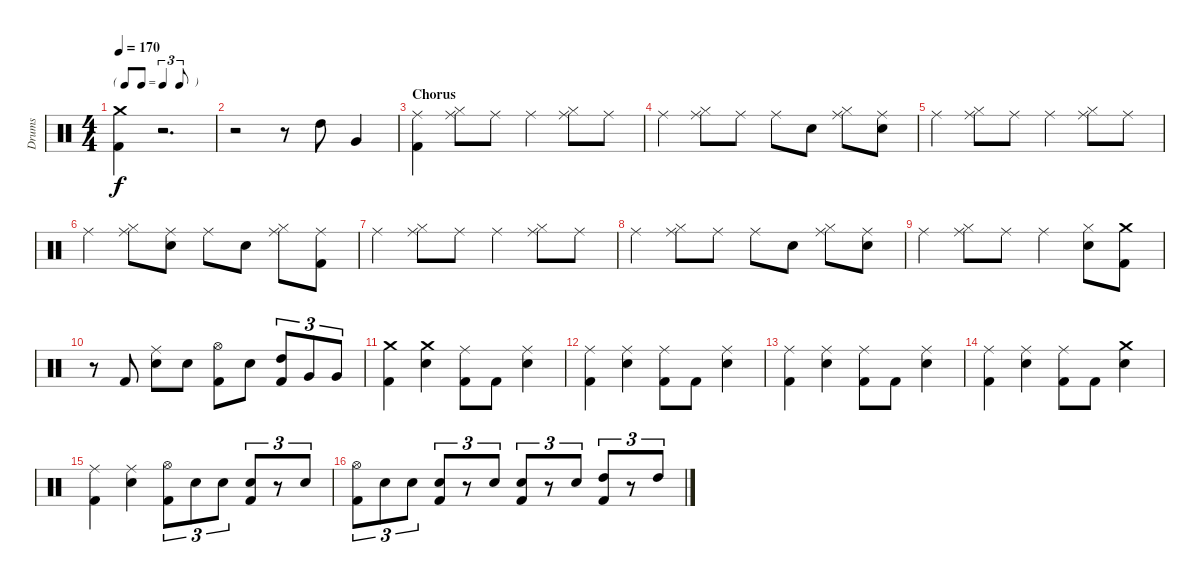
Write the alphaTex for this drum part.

\track ("Drums" "Drums") {instrument percussion}
\staff {score}
\articulation defaults
\ts (4 4)
\tf triplet8th
\tempo 170
\clef neutral
\ks c
("Crash medium (hit)" "Kick (hit) 2").4{dy f} r.2{d} |
r.2 r.8 "High Tom (hit)".8 "Very Low Tom (hit)".4 |
\section ("" "Chorus")
("Ride (middle)" "Kick (hit) 2").4 ("Ride (middle)" "Hi-Hat (closed)").8 "Ride (middle)".8 "Ride (middle)".4 ("Ride (middle)" "Hi-Hat (closed)").8 "Ride (middle)".8 |
"Ride (middle)".4 ("Ride (middle)" "Hi-Hat (closed)").8 "Ride (middle)".8 "Ride (middle)".8 "Snare (hit) 2".8 ("Ride (middle)" "Hi-Hat (closed)").8 ("Ride (middle)" "Snare (hit) 2").8 |
"Ride (middle)".4 ("Ride (middle)" "Hi-Hat (closed)").8 "Ride (middle)".8 "Ride (middle)".4 ("Ride (middle)" "Hi-Hat (closed)").8 "Ride (middle)".8 |
"Ride (middle)".4 ("Ride (middle)" "Hi-Hat (closed)").8 ("Ride (middle)" "Snare (hit) 2").8 "Ride (middle)".8 "Snare (hit) 2".8 ("Ride (middle)" "Hi-Hat (closed)").8 ("Ride (middle)" "Kick (hit) 2").8 |
"Ride (middle)".4 ("Ride (middle)" "Hi-Hat (closed)").8 "Ride (middle)".8 "Ride (middle)".4 ("Ride (middle)" "Hi-Hat (closed)").8 "Ride (middle)".8 |
"Ride (middle)".4 ("Ride (middle)" "Hi-Hat (closed)").8 "Ride (middle)".8 "Ride (middle)".8 "Snare (hit) 2".8 ("Ride (middle)" "Hi-Hat (closed)").8 ("Ride (middle)" "Snare (hit) 2").8 |
"Ride (middle)".4 ("Ride (middle)" "Hi-Hat (closed)").8 "Ride (middle)".8 "Ride (middle)".4 ("Hi-Hat (closed)" "Snare (hit) 2").8 ("Crash medium (hit)" "Kick (hit) 2").8 |
r.8 "Kick (hit) 2".8 ("Ride (middle)" "Snare (hit) 2").8 "Snare (hit) 2".8 ("Hi-Hat (open)" "Kick (hit) 2").8 "Snare (hit) 2".8 ("High Tom (hit)" "Kick (hit) 2").8{tu (3 2)} "Very Low Tom (hit)".8{tu (3 2)} "Very Low Tom (hit)".8{tu (3 2)} |
("Crash medium (hit)" "Kick (hit) 2").4 ("Crash medium (hit)" "Snare (hit) 2").4 ("Ride (middle)" "Kick (hit) 2").8 "Kick (hit) 2".8 ("Ride (middle)" "Snare (hit) 2").4 |
("Ride (middle)" "Kick (hit) 2").4 ("Ride (middle)" "Snare (hit) 2").4 ("Ride (middle)" "Kick (hit) 2").8 "Kick (hit) 2".8 ("Ride (middle)" "Snare (hit) 2").4 |
("Ride (middle)" "Kick (hit) 2").4 ("Ride (middle)" "Snare (hit) 2").4 ("Ride (middle)" "Kick (hit) 2").8 "Kick (hit) 2".8 ("Ride (middle)" "Snare (hit) 2").4 |
("Ride (middle)" "Kick (hit) 2").4 ("Ride (middle)" "Snare (hit) 2").4 ("Ride (middle)" "Kick (hit) 2").8 "Kick (hit) 2".8 ("Crash medium (hit)" "Snare (hit) 2").4 |
("Ride (middle)" "Kick (hit) 2").4 ("Ride (middle)" "Snare (hit) 2").4 ("Hi-Hat (open)" "Kick (hit) 2").8{tu (3 2)} "Snare (hit) 2".8{tu (3 2)} "Snare (hit) 2".8{tu (3 2)} ("Snare (hit) 2" "Kick (hit) 2").8{tu (3 2)} r.8{tu (3 2)} "Snare (hit) 2".8{tu (3 2)} |
("Hi-Hat (open)" "Kick (hit) 2").8{tu (3 2)} "Snare (hit) 2".8{tu (3 2)} "Snare (hit) 2".8{tu (3 2)} ("Snare (hit) 2" "Kick (hit) 2").8{tu (3 2)} r.8{tu (3 2)} "Snare (hit) 2".8{tu (3 2)} ("Snare (hit) 2" "Kick (hit) 2").8{tu (3 2)} r.8{tu (3 2)} "Snare (hit) 2".8{tu (3 2)} ("High Tom (hit)" "Kick (hit) 2").8{tu (3 2)} r.8{tu (3 2)} "High Tom (hit)".8{tu (3 2)}
